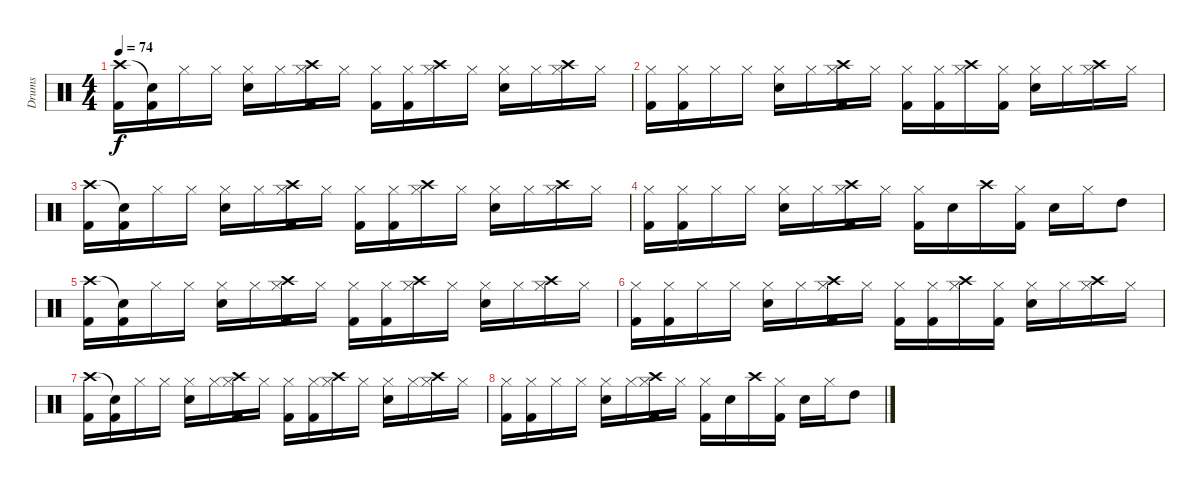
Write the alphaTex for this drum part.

\track ("Drums" "Drums") {instrument percussion}
\staff {score}
\articulation defaults
\ts (4 4)
\tempo 74
\clef neutral
\ks c
("Crash high (hit)" "Kick (hit) 2").16{dy f} ("Snare (hit)"{t} "Kick (hit) 2").16 "Hi-Hat (closed)".16 "Hi-Hat (closed)".16 ("Hi-Hat (closed)" "Electric Snare (hit)").16 "Hi-Hat (closed)".16 ("Hi-Hat (closed)" "Kick (hit) 2" "Crash high (hit)").16 "Hi-Hat (closed)".16 ("Hi-Hat (closed)" "Kick (hit) 2").16 ("Hi-Hat (closed)" "Kick (hit) 2").16 ("Hi-Hat (closed)" "Crash high (hit)").16 "Hi-Hat (closed)".16 ("Hi-Hat (closed)" "Electric Snare (hit)").16 "Hi-Hat (closed)".16 ("Hi-Hat (closed)" "Crash high (hit)").16 "Hi-Hat (closed)".16 |
("Hi-Hat (closed)" "Kick (hit) 2").16 ("Hi-Hat (closed)" "Kick (hit) 2").16 "Hi-Hat (closed)".16 "Hi-Hat (closed)".16 ("Hi-Hat (closed)" "Electric Snare (hit)").16 "Hi-Hat (closed)".16 ("Hi-Hat (closed)" "Kick (hit) 2" "Crash high (hit)").16 "Hi-Hat (closed)".16 ("Hi-Hat (closed)" "Kick (hit) 2").16 ("Hi-Hat (closed)" "Kick (hit) 2").16 ("Hi-Hat (closed)" "Crash high (hit)").16 ("Hi-Hat (closed)" "Kick (hit) 2").16 ("Hi-Hat (closed)" "Electric Snare (hit)").16 "Hi-Hat (closed)".16 ("Hi-Hat (closed)" "Crash high (hit)").16 "Hi-Hat (closed)".16 |
("Crash high (hit)" "Kick (hit) 2").16 ("Snare (hit)"{t} "Kick (hit) 2").16 "Hi-Hat (closed)".16 "Hi-Hat (closed)".16 ("Hi-Hat (closed)" "Electric Snare (hit)").16 "Hi-Hat (closed)".16 ("Hi-Hat (closed)" "Kick (hit) 2" "Crash high (hit)").16 "Hi-Hat (closed)".16 ("Hi-Hat (closed)" "Kick (hit) 2").16 ("Hi-Hat (closed)" "Kick (hit) 2").16 ("Hi-Hat (closed)" "Crash high (hit)").16 "Hi-Hat (closed)".16 ("Hi-Hat (closed)" "Electric Snare (hit)").16 "Hi-Hat (closed)".16 ("Hi-Hat (closed)" "Crash high (hit)").16 "Hi-Hat (closed)".16 |
("Hi-Hat (closed)" "Kick (hit) 2").16 ("Hi-Hat (closed)" "Kick (hit) 2").16 "Hi-Hat (closed)".16 "Hi-Hat (closed)".16 ("Hi-Hat (closed)" "Electric Snare (hit)").16 "Hi-Hat (closed)".16 ("Hi-Hat (closed)" "Kick (hit) 2" "Crash high (hit)").16 "Hi-Hat (closed)".16 ("Hi-Hat (closed)" "Kick (hit) 2").16 "Electric Snare (hit)".16 "Crash high (hit)".16 ("Hi-Hat (closed)" "Kick (hit) 2").16 "Electric Snare (hit)".16 "Hi-Hat (closed)".16 "High Tom (hit)".8 |
("Crash high (hit)" "Kick (hit) 2").16{volume 0} ("Snare (hit)"{t} "Kick (hit) 2").16 "Hi-Hat (closed)".16 "Hi-Hat (closed)".16 ("Hi-Hat (closed)" "Electric Snare (hit)").16 "Hi-Hat (closed)".16 ("Hi-Hat (closed)" "Kick (hit) 2" "Crash high (hit)").16 "Hi-Hat (closed)".16 ("Hi-Hat (closed)" "Kick (hit) 2").16 ("Hi-Hat (closed)" "Kick (hit) 2").16 ("Hi-Hat (closed)" "Crash high (hit)").16 "Hi-Hat (closed)".16 ("Hi-Hat (closed)" "Electric Snare (hit)").16 "Hi-Hat (closed)".16 ("Hi-Hat (closed)" "Crash high (hit)").16 "Hi-Hat (closed)".16 |
("Hi-Hat (closed)" "Kick (hit) 2").16 ("Hi-Hat (closed)" "Kick (hit) 2").16 "Hi-Hat (closed)".16 "Hi-Hat (closed)".16 ("Hi-Hat (closed)" "Electric Snare (hit)").16 "Hi-Hat (closed)".16 ("Hi-Hat (closed)" "Kick (hit) 2" "Crash high (hit)").16 "Hi-Hat (closed)".16 ("Hi-Hat (closed)" "Kick (hit) 2").16 ("Hi-Hat (closed)" "Kick (hit) 2").16 ("Hi-Hat (closed)" "Crash high (hit)").16 ("Hi-Hat (closed)" "Kick (hit) 2").16 ("Hi-Hat (closed)" "Electric Snare (hit)").16 "Hi-Hat (closed)".16 ("Hi-Hat (closed)" "Crash high (hit)").16 "Hi-Hat (closed)".16 |
("Crash high (hit)" "Kick (hit) 2").16 ("Snare (hit)"{t} "Kick (hit) 2").16 "Hi-Hat (closed)".16 "Hi-Hat (closed)".16 ("Hi-Hat (closed)" "Electric Snare (hit)").16 "Hi-Hat (closed)".16 ("Hi-Hat (closed)" "Kick (hit) 2" "Crash high (hit)").16 "Hi-Hat (closed)".16 ("Hi-Hat (closed)" "Kick (hit) 2").16 ("Hi-Hat (closed)" "Kick (hit) 2").16 ("Hi-Hat (closed)" "Crash high (hit)").16 "Hi-Hat (closed)".16 ("Hi-Hat (closed)" "Electric Snare (hit)").16 "Hi-Hat (closed)".16 ("Hi-Hat (closed)" "Crash high (hit)").16 "Hi-Hat (closed)".16 |
("Hi-Hat (closed)" "Kick (hit) 2").16 ("Hi-Hat (closed)" "Kick (hit) 2").16 "Hi-Hat (closed)".16 "Hi-Hat (closed)".16 ("Hi-Hat (closed)" "Electric Snare (hit)").16 "Hi-Hat (closed)".16 ("Hi-Hat (closed)" "Kick (hit) 2" "Crash high (hit)").16 "Hi-Hat (closed)".16 ("Hi-Hat (closed)" "Kick (hit) 2").16 "Electric Snare (hit)".16 "Crash high (hit)".16 ("Hi-Hat (closed)" "Kick (hit) 2").16 "Electric Snare (hit)".16 "Hi-Hat (closed)".16 "High Tom (hit)".8
